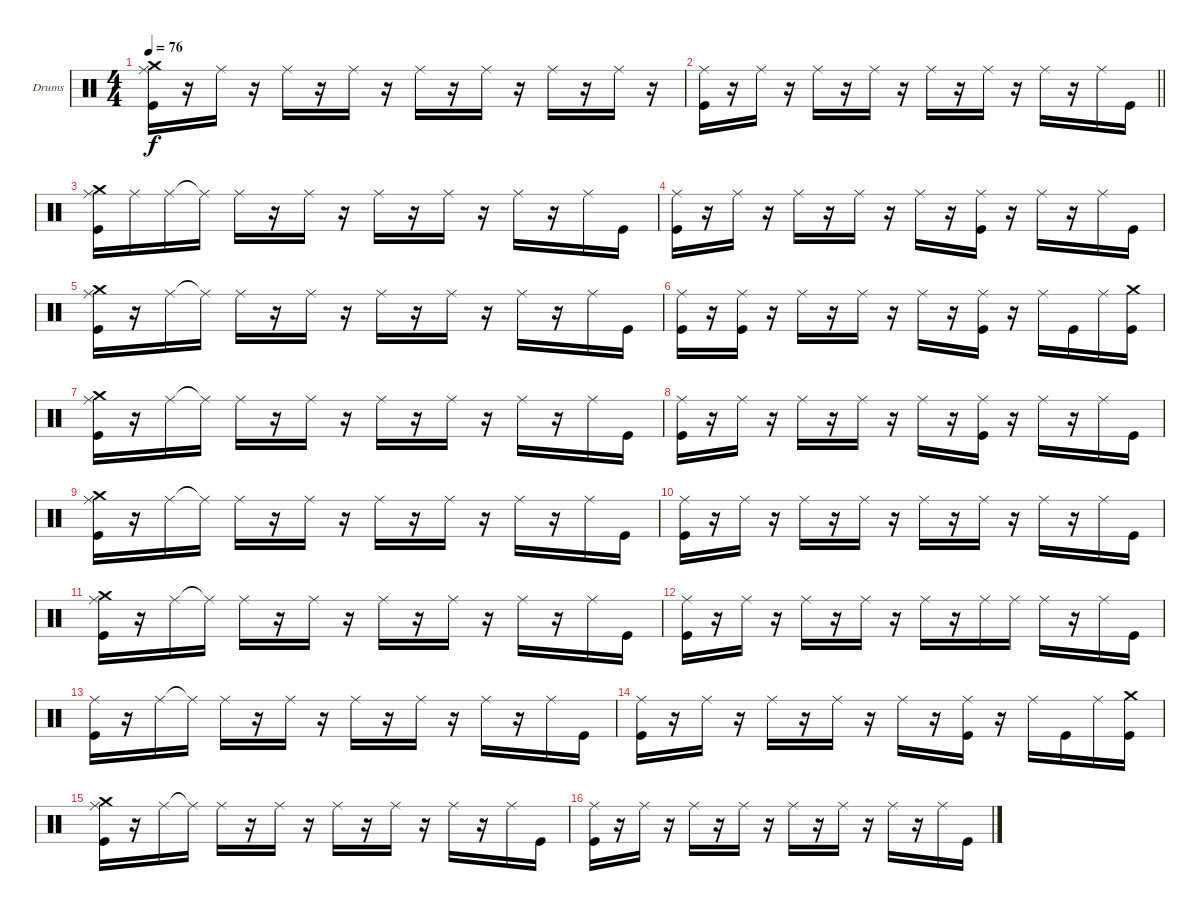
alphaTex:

\bracketExtendMode groupsimilarinstruments
\firstSystemTrackNameOrientation horizontal
\otherSystemsTrackNameOrientation horizontal
\track ("Drumkit" "Drums") {instrument percussion}
\staff {score}
\articulation defaults
\ts (4 4)
\tempo 76
\clef neutral
\ks c
("Ride (middle)" "Crash medium (hit)" "Kick (hit)").16{dy f} r.16 "Ride (middle)".16 r.16 "Ride (middle)".16 r.16 "Ride (middle)".16 r.16 "Ride (middle)".16 r.16 "Ride (middle)".16 r.16 "Ride (middle)".16 r.16 "Ride (middle)".16 r.16 |
\barLineRight lightlight
("Ride (middle)" "Kick (hit)").16 r.16 "Ride (middle)".16 r.16 "Ride (middle)".16 r.16 "Ride (middle)".16 r.16 "Ride (middle)".16 r.16 "Ride (middle)".16 r.16 "Ride (middle)".16 r.16 "Ride (middle)".16 "Kick (hit)".16 |
("Ride (middle)" "Crash medium (hit)" "Kick (hit)").16 "Ride (middle)".16 "Ride (middle)".16 "Ride (middle)"{t}.16 "Ride (middle)".16 r.16 "Ride (middle)".16 r.16 "Ride (middle)".16 r.16 "Ride (middle)".16 r.16 "Ride (middle)".16 r.16 "Ride (middle)".16 "Kick (hit)".16 |
("Ride (middle)" "Kick (hit)").16 r.16 "Ride (middle)".16 r.16 "Ride (middle)".16 r.16 "Ride (middle)".16 r.16 "Ride (middle)".16 r.16 ("Ride (middle)" "Kick (hit)").16 r.16 "Ride (middle)".16 r.16 "Ride (middle)".16 "Kick (hit)".16 |
("Ride (middle)" "Crash medium (hit)" "Kick (hit)").16 r.16 "Ride (middle)".16 "Ride (middle)"{t}.16 "Ride (middle)".16 r.16 "Ride (middle)".16 r.16 "Ride (middle)".16 r.16 "Ride (middle)".16 r.16 "Ride (middle)".16 r.16 "Ride (middle)".16 "Kick (hit)".16 |
("Ride (middle)" "Kick (hit)").16 r.16 ("Ride (middle)" "Kick (hit)").16 r.16 "Ride (middle)".16 r.16 "Ride (middle)".16 r.16 "Ride (middle)".16 r.16 ("Ride (middle)" "Kick (hit)").16 r.16 "Ride (middle)".16 "Kick (hit)".16 "Ride (middle)".16 ("Crash medium (hit)" "Kick (hit)").16 |
("Ride (middle)" "Crash medium (hit)" "Kick (hit)").16 r.16 "Ride (middle)".16 "Ride (middle)"{t}.16 "Ride (middle)".16 r.16 "Ride (middle)".16 r.16 "Ride (middle)".16 r.16 "Ride (middle)".16 r.16 "Ride (middle)".16 r.16 "Ride (middle)".16 "Kick (hit)".16 |
("Ride (middle)" "Kick (hit)").16 r.16 "Ride (middle)".16 r.16 "Ride (middle)".16 r.16 "Ride (middle)".16 r.16 "Ride (middle)".16 r.16 ("Ride (middle)" "Kick (hit)").16 r.16 "Ride (middle)".16 r.16 "Ride (middle)".16 "Kick (hit)".16 |
("Ride (middle)" "Crash medium (hit)" "Kick (hit)").16 r.16 "Ride (middle)".16 "Ride (middle)"{t}.16 "Ride (middle)".16 r.16 "Ride (middle)".16 r.16 "Ride (middle)".16 r.16 "Ride (middle)".16 r.16 "Ride (middle)".16 r.16 "Ride (middle)".16 "Kick (hit)".16 |
("Ride (middle)" "Kick (hit)").16 r.16 "Ride (middle)".16 r.16 "Ride (middle)".16 r.16 "Ride (middle)".16 r.16 "Ride (middle)".16 r.16 "Ride (middle)".16 r.16 "Ride (middle)".16 r.16 "Ride (middle)".16 "Kick (hit)".16 |
("Ride (middle)" "Crash medium (hit)" "Kick (hit)").16 r.16 "Ride (middle)".16 "Ride (middle)"{t}.16 "Ride (middle)".16 r.16 "Ride (middle)".16 r.16 "Ride (middle)".16 r.16 "Ride (middle)".16 r.16 "Ride (middle)".16 r.16 "Ride (middle)".16 "Kick (hit)".16 |
("Ride (middle)" "Kick (hit)").16 r.16 "Ride (middle)".16 r.16 "Ride (middle)".16 r.16 "Ride (middle)".16 r.16 "Ride (middle)".16 r.16 "Ride (middle)".16 "Ride (middle)".16 "Ride (middle)".16 r.16 "Ride (middle)".16 "Kick (hit)".16 |
("Ride (middle)" "Kick (hit)").16 r.16 "Ride (middle)".16 "Ride (middle)"{t}.16 "Ride (middle)".16 r.16 "Ride (middle)".16 r.16 "Ride (middle)".16 r.16 "Ride (middle)".16 r.16 "Ride (middle)".16 r.16 "Ride (middle)".16 "Kick (hit)".16 |
("Ride (middle)" "Kick (hit)").16 r.16 "Ride (middle)".16 r.16 "Ride (middle)".16 r.16 "Ride (middle)".16 r.16 "Ride (middle)".16 r.16 ("Ride (middle)" "Kick (hit)").16 r.16 "Ride (middle)".16 "Kick (hit)".16 "Ride (middle)".16 ("Crash medium (hit)" "Kick (hit)").16 |
("Ride (middle)" "Crash medium (hit)" "Kick (hit)").16 r.16 "Ride (middle)".16 "Ride (middle)"{t}.16 "Ride (middle)".16 r.16 "Ride (middle)".16 r.16 "Ride (middle)".16 r.16 "Ride (middle)".16 r.16 "Ride (middle)".16 r.16 "Ride (middle)".16 "Kick (hit)".16 |
("Ride (middle)" "Kick (hit)").16 r.16 "Ride (middle)".16 r.16 "Ride (middle)".16 r.16 "Ride (middle)".16 r.16 "Ride (middle)".16 r.16 "Ride (middle)".16 r.16 "Ride (middle)".16 r.16 "Ride (middle)".16 "Kick (hit)".16
